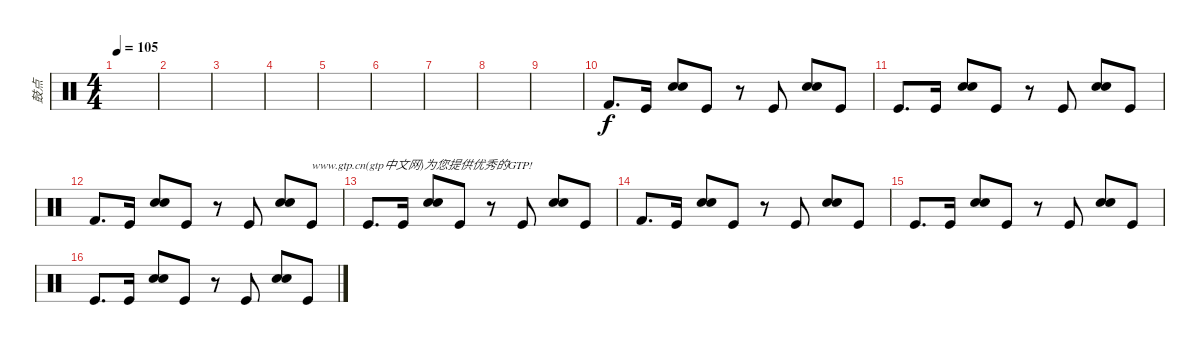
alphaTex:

\track ("鼓点" "鼓点") {instrument percussion}
\staff {score}
\articulation defaults
\ts (4 4)
\tempo 105
\clef neutral
\ks c
|
|
|
|
|
|
|
|
|
"Kick (hit) 2".8{d} "Kick (hit)".16 ("Electric Snare (hit)" "Snare (hit) 2").8 "Kick (hit)".8 r.8 "Kick (hit)".8 ("Electric Snare (hit)" "Snare (hit) 2").8 "Kick (hit)".8 |
"Kick (hit)".8{d} "Kick (hit)".16 ("Electric Snare (hit)" "Snare (hit) 2").8 "Kick (hit)".8 r.8 "Kick (hit)".8 ("Electric Snare (hit)" "Snare (hit) 2").8 "Kick (hit)".8 |
"Kick (hit) 2".8{d} "Kick (hit)".16 ("Electric Snare (hit)" "Snare (hit) 2").8 "Kick (hit)".8 r.8 "Kick (hit)".8 ("Electric Snare (hit)" "Snare (hit) 2").8 "Kick (hit)".8{txt "www.gtp.cn(gtp中文网)为您提供优秀的GTP!"} |
"Kick (hit)".8{d} "Kick (hit)".16 ("Electric Snare (hit)" "Snare (hit) 2").8 "Kick (hit)".8 r.8 "Kick (hit)".8 ("Electric Snare (hit)" "Snare (hit) 2").8 "Kick (hit)".8 |
"Kick (hit) 2".8{d} "Kick (hit)".16 ("Electric Snare (hit)" "Snare (hit) 2").8 "Kick (hit)".8 r.8 "Kick (hit)".8 ("Electric Snare (hit)" "Snare (hit) 2").8 "Kick (hit)".8 |
"Kick (hit)".8{d} "Kick (hit)".16 ("Electric Snare (hit)" "Snare (hit) 2").8 "Kick (hit)".8 r.8 "Kick (hit)".8 ("Electric Snare (hit)" "Snare (hit) 2").8 "Kick (hit)".8 |
"Kick (hit)".8{d} "Kick (hit)".16 ("Electric Snare (hit)" "Snare (hit) 2").8 "Kick (hit)".8 r.8 "Kick (hit)".8 ("Electric Snare (hit)" "Snare (hit) 2").8 "Kick (hit)".8
